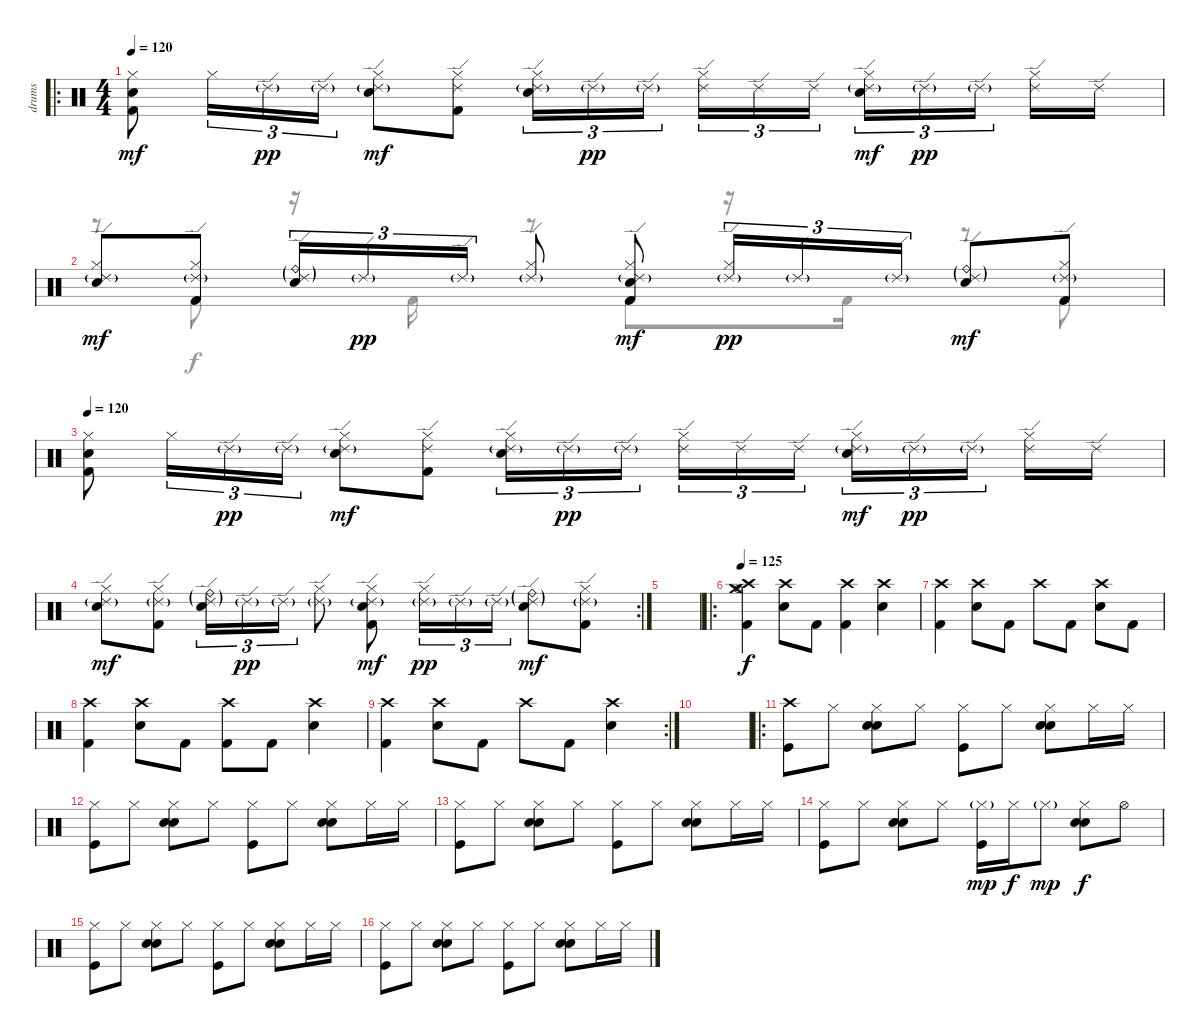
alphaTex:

\track ("drums" "drums") {instrument percussion}
\staff {score}
\articulation defaults
\voice
\ro
\ts (4 4)
\tempo 120
\clef neutral
\ks c
("Hi-Hat (closed)" "Hand Clap (hit)" "Kick (hit) 2").8{dy mf} "Hi-Hat (closed)".16{tu (3 2)} "Ride (edge) 2"{g}.16{tu (3 2) dy pp} "Ride (edge) 2"{g}.16{tu (3 2)} ("Hi-Hat (closed)" "Ride (edge) 2"{g} "Snare (hit) 2").8{dy mf} ("Hi-Hat (closed)" "Ride (edge) 2" "Kick (hit) 2").8 ("Hi-Hat (closed)" "Ride (edge) 2"{g} "Hand Clap (hit)").16{tu (3 2)} "Ride (edge) 2"{g}.16{tu (3 2) dy pp} "Ride (edge) 2"{g}.16{tu (3 2) beam splitsecondary} ("Hi-Hat (closed)" "Ride (edge) 2").16{tu (3 2)} "Ride (edge) 2".16{tu (3 2)} "Ride (edge) 2".16{tu (3 2)} ("Hi-Hat (closed)" "Ride (edge) 2"{g} "Snare (hit) 2").16{tu (3 2) dy mf} "Ride (edge) 2"{g}.16{tu (3 2) dy pp} "Ride (edge) 2"{g}.16{tu (3 2) beam splitsecondary} ("Hi-Hat (closed)" "Ride (edge) 2").16 "Ride (edge) 2".16 |
("Hi-Hat (closed)" "Ride (edge) 2"{g} "Hand Clap (hit)").8{dy mf} ("Hi-Hat (closed)" "Ride (edge) 2"{g} "Kick (hit) 2").8 ("Ride (bell)"{g} "Ride (edge) 2"{g} "Snare (hit) 2").16{tu (3 2)} "Ride (edge) 2"{g}.16{tu (3 2) dy pp} "Ride (edge) 2"{g}.16{tu (3 2)} ("Hi-Hat (closed)" "Ride (edge) 2"{g}).8 ("Hi-Hat (closed)" "Ride (edge) 2"{g} "Hand Clap (hit)" "Kick (hit) 2").8{dy mf} ("Hi-Hat (closed)" "Ride (edge) 2"{g}).16{tu (3 2) dy pp} "Ride (edge) 2"{g}.16{tu (3 2)} "Ride (edge) 2"{g}.16{tu (3 2)} ("Ride (bell)"{g} "Ride (edge) 2"{g} "Snare (hit) 2").8{dy mf} ("Hi-Hat (closed)" "Ride (edge) 2"{g} "Kick (hit) 2").8 |
\tempo 120
("Hi-Hat (closed)" "Hand Clap (hit)" "Kick (hit) 2").8 "Hi-Hat (closed)".16{tu (3 2)} "Ride (edge) 2"{g}.16{tu (3 2) dy pp} "Ride (edge) 2"{g}.16{tu (3 2)} ("Hi-Hat (closed)" "Ride (edge) 2"{g} "Snare (hit) 2").8{dy mf} ("Hi-Hat (closed)" "Ride (edge) 2" "Kick (hit) 2").8 ("Hi-Hat (closed)" "Ride (edge) 2"{g} "Hand Clap (hit)").16{tu (3 2)} "Ride (edge) 2"{g}.16{tu (3 2) dy pp} "Ride (edge) 2"{g}.16{tu (3 2) beam splitsecondary} ("Hi-Hat (closed)" "Ride (edge) 2").16{tu (3 2)} "Ride (edge) 2".16{tu (3 2)} "Ride (edge) 2".16{tu (3 2)} ("Hi-Hat (closed)" "Ride (edge) 2"{g} "Snare (hit) 2").16{tu (3 2) dy mf} "Ride (edge) 2"{g}.16{tu (3 2) dy pp} "Ride (edge) 2"{g}.16{tu (3 2) beam splitsecondary} ("Hi-Hat (closed)" "Ride (edge) 2").16 "Ride (edge) 2".16 |
\rc 2
("Hi-Hat (closed)" "Ride (edge) 2"{g} "Hand Clap (hit)").8{dy mf} ("Hi-Hat (closed)" "Ride (edge) 2"{g} "Kick (hit) 2").8 ("Ride (bell)"{g} "Ride (edge) 2"{g} "Snare (hit) 2").16{tu (3 2)} "Ride (edge) 2"{g}.16{tu (3 2) dy pp} "Ride (edge) 2"{g}.16{tu (3 2)} ("Hi-Hat (closed)" "Ride (edge) 2"{g}).8 ("Hi-Hat (closed)" "Ride (edge) 2"{g} "Hand Clap (hit)" "Kick (hit) 2").8{dy mf} ("Hi-Hat (closed)" "Ride (edge) 2"{g}).16{tu (3 2) dy pp} "Ride (edge) 2"{g}.16{tu (3 2)} "Ride (edge) 2"{g}.16{tu (3 2)} ("Ride (bell)"{g} "Ride (edge) 2"{g} "Snare (hit) 2").8{dy mf} ("Hi-Hat (closed)" "Ride (edge) 2"{g} "Kick (hit) 2").8 |
|
\ro
\tempo 125
("Crash high (hit)" "Kick (hit) 2" "Crash medium (hit)" "Hi-Hat (open)").4{dy f} ("Crash high (hit)" "Snare (hit) 2").8 "Kick (hit) 2".8 ("Crash high (hit)" "Kick (hit) 2").4 ("Crash high (hit)" "Snare (hit) 2").4 |
("Crash high (hit)" "Kick (hit) 2").4 ("Crash high (hit)" "Snare (hit) 2").8 "Kick (hit) 2".8 "Crash high (hit)".8 "Kick (hit) 2".8 ("Crash high (hit)" "Snare (hit) 2").8 "Kick (hit) 2".8 |
("Crash high (hit)" "Kick (hit) 2").4 ("Crash high (hit)" "Snare (hit) 2").8 "Kick (hit) 2".8 ("Crash high (hit)" "Kick (hit) 2").8 "Kick (hit) 2".8 ("Crash high (hit)" "Snare (hit) 2").4 |
\rc 2
("Crash high (hit)" "Kick (hit) 2").4 ("Crash high (hit)" "Snare (hit) 2").8 "Kick (hit) 2".8 "Crash high (hit)".8 "Kick (hit) 2".8 ("Crash high (hit)" "Snare (hit) 2").4 |
|
\ro
("Crash high (hit)" "Kick (hit)").8 "Hi-Hat (closed)".8 ("Hi-Hat (closed)" "Hand Clap (hit)" "Electric Snare (hit)").8 "Hi-Hat (closed)".8 ("Hi-Hat (closed)" "Kick (hit)").8 "Hi-Hat (closed)".8 ("Hi-Hat (closed)" "Hand Clap (hit)" "Electric Snare (hit)").8 "Hi-Hat (closed)".16 "Hi-Hat (closed)".16 |
("Hi-Hat (closed)" "Kick (hit)").8 "Hi-Hat (closed)".8 ("Hi-Hat (closed)" "Hand Clap (hit)" "Electric Snare (hit)").8 "Hi-Hat (closed)".8 ("Hi-Hat (closed)" "Kick (hit)").8 "Hi-Hat (closed)".8 ("Hi-Hat (closed)" "Hand Clap (hit)" "Electric Snare (hit)").8 "Hi-Hat (closed)".16 "Hi-Hat (closed)".16 |
("Hi-Hat (closed)" "Kick (hit)").8 "Hi-Hat (closed)".8 ("Hi-Hat (closed)" "Hand Clap (hit)" "Electric Snare (hit)").8 "Hi-Hat (closed)".8 ("Hi-Hat (closed)" "Kick (hit)").8 "Hi-Hat (closed)".8 ("Hi-Hat (closed)" "Hand Clap (hit)" "Electric Snare (hit)").8 "Hi-Hat (closed)".16 "Hi-Hat (closed)".16 |
("Hi-Hat (closed)" "Kick (hit)").8 "Hi-Hat (closed)".8 ("Hi-Hat (closed)" "Hand Clap (hit)" "Electric Snare (hit)").8 "Hi-Hat (closed)".8 ("Hi-Hat (closed)"{g} "Kick (hit)").16{dy mp} "Hi-Hat (closed)".16{dy f} "Hi-Hat (closed)"{g}.8{dy mp} ("Hi-Hat (closed)" "Hand Clap (hit)" "Electric Snare (hit)").8{dy f} "Hi-Hat (open)".8 |
("Hi-Hat (closed)" "Kick (hit)").8 "Hi-Hat (closed)".8 ("Hi-Hat (closed)" "Hand Clap (hit)" "Electric Snare (hit)").8 "Hi-Hat (closed)".8 ("Hi-Hat (closed)" "Kick (hit)").8 "Hi-Hat (closed)".8 ("Hi-Hat (closed)" "Hand Clap (hit)" "Electric Snare (hit)").8 "Hi-Hat (closed)".16 "Hi-Hat (closed)".16 |
("Hi-Hat (closed)" "Kick (hit)").8 "Hi-Hat (closed)".8 ("Hi-Hat (closed)" "Hand Clap (hit)" "Electric Snare (hit)").8 "Hi-Hat (closed)".8 ("Hi-Hat (closed)" "Kick (hit)").8 "Hi-Hat (closed)".8 ("Hi-Hat (closed)" "Hand Clap (hit)" "Electric Snare (hit)").8 "Hi-Hat (closed)".16 "Hi-Hat (closed)".16
\voice
\clef neutral
\ottava regular
\simile none
\ks c
|
r.8 "Kick (hit) 2".8 r.16 "Kick (hit) 2".16 r.8 "Kick (hit) 2".8 r.16 "Kick (hit) 2".16 r.8 "Kick (hit) 2".8 |
|
|
|
|
|
|
|
|
|
|
|
|
|
